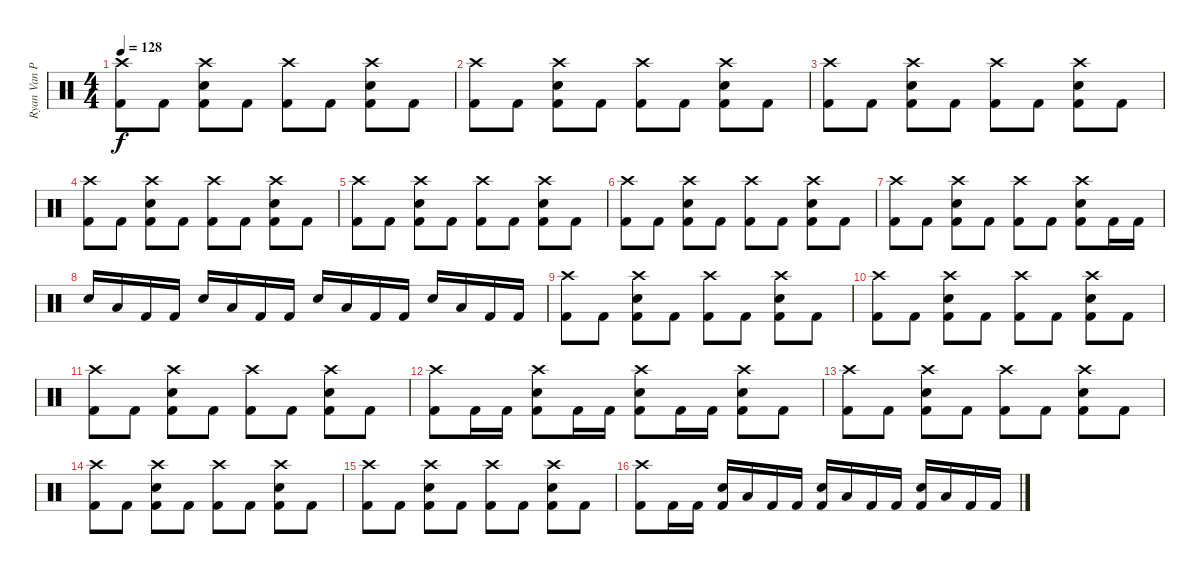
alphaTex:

\track ("Ryan Van Poederooyen" "Ryan Van P") {instrument percussion}
\staff {score}
\articulation defaults
\ts (4 4)
\tempo 128
\clef neutral
\ks c
("Crash high (hit)" "Kick (hit) 2").8{dy f volume 6} "Kick (hit) 2".8 ("Crash high (hit)" "Electric Snare (hit)" "Kick (hit) 2").8 "Kick (hit) 2".8 ("Crash high (hit)" "Kick (hit) 2").8 "Kick (hit) 2".8 ("Crash high (hit)" "Electric Snare (hit)" "Kick (hit) 2").8 "Kick (hit) 2".8 |
("Crash high (hit)" "Kick (hit) 2").8 "Kick (hit) 2".8 ("Crash high (hit)" "Electric Snare (hit)" "Kick (hit) 2").8 "Kick (hit) 2".8 ("Crash high (hit)" "Kick (hit) 2").8 "Kick (hit) 2".8 ("Crash high (hit)" "Electric Snare (hit)" "Kick (hit) 2").8 "Kick (hit) 2".8 |
("Crash high (hit)" "Kick (hit) 2").8 "Kick (hit) 2".8 ("Crash high (hit)" "Electric Snare (hit)" "Kick (hit) 2").8 "Kick (hit) 2".8 ("Crash high (hit)" "Kick (hit) 2").8 "Kick (hit) 2".8 ("Crash high (hit)" "Electric Snare (hit)" "Kick (hit) 2").8 "Kick (hit) 2".8 |
("Crash high (hit)" "Kick (hit) 2").8 "Kick (hit) 2".8 ("Crash high (hit)" "Electric Snare (hit)" "Kick (hit) 2").8 "Kick (hit) 2".8 ("Crash high (hit)" "Kick (hit) 2").8 "Kick (hit) 2".8 ("Crash high (hit)" "Electric Snare (hit)" "Kick (hit) 2").8 "Kick (hit) 2".8 |
("Crash high (hit)" "Kick (hit) 2").8{volume 4} "Kick (hit) 2".8 ("Crash high (hit)" "Electric Snare (hit)" "Kick (hit) 2").8 "Kick (hit) 2".8 ("Crash high (hit)" "Kick (hit) 2").8 "Kick (hit) 2".8 ("Crash high (hit)" "Electric Snare (hit)" "Kick (hit) 2").8 "Kick (hit) 2".8 |
("Crash high (hit)" "Kick (hit) 2").8 "Kick (hit) 2".8 ("Crash high (hit)" "Electric Snare (hit)" "Kick (hit) 2").8 "Kick (hit) 2".8 ("Crash high (hit)" "Kick (hit) 2").8 "Kick (hit) 2".8 ("Crash high (hit)" "Electric Snare (hit)" "Kick (hit) 2").8 "Kick (hit) 2".8 |
("Crash high (hit)" "Kick (hit) 2").8 "Kick (hit) 2".8 ("Crash high (hit)" "Electric Snare (hit)" "Kick (hit) 2").8 "Kick (hit) 2".8 ("Crash high (hit)" "Kick (hit) 2").8 "Kick (hit) 2".8 ("Crash high (hit)" "Electric Snare (hit)" "Kick (hit) 2").8 "Kick (hit) 2".16 "Kick (hit) 2".16 |
"Electric Snare (hit)".16 "Low Tom (hit)".16 "Kick (hit) 2".16 "Kick (hit) 2".16 "Electric Snare (hit)".16 "Low Tom (hit)".16 "Kick (hit) 2".16 "Kick (hit) 2".16 "Electric Snare (hit)".16 "Low Tom (hit)".16 "Kick (hit) 2".16 "Kick (hit) 2".16 "Electric Snare (hit)".16 "Low Tom (hit)".16 "Kick (hit) 2".16 "Kick (hit) 2".16 |
("Crash high (hit)" "Kick (hit) 2").8{volume 2} "Kick (hit) 2".8 ("Crash high (hit)" "Electric Snare (hit)" "Kick (hit) 2").8 "Kick (hit) 2".8 ("Crash high (hit)" "Kick (hit) 2").8 "Kick (hit) 2".8 ("Crash high (hit)" "Electric Snare (hit)" "Kick (hit) 2").8 "Kick (hit) 2".8 |
("Crash high (hit)" "Kick (hit) 2").8 "Kick (hit) 2".8 ("Crash high (hit)" "Electric Snare (hit)" "Kick (hit) 2").8 "Kick (hit) 2".8 ("Crash high (hit)" "Kick (hit) 2").8 "Kick (hit) 2".8 ("Crash high (hit)" "Electric Snare (hit)" "Kick (hit) 2").8 "Kick (hit) 2".8 |
("Crash high (hit)" "Kick (hit) 2").8 "Kick (hit) 2".8 ("Crash high (hit)" "Electric Snare (hit)" "Kick (hit) 2").8 "Kick (hit) 2".8 ("Crash high (hit)" "Kick (hit) 2").8 "Kick (hit) 2".8 ("Crash high (hit)" "Electric Snare (hit)" "Kick (hit) 2").8 "Kick (hit) 2".8 |
("Crash high (hit)" "Kick (hit) 2").8 "Kick (hit) 2".16 "Kick (hit) 2".16 ("Crash high (hit)" "Electric Snare (hit)" "Kick (hit) 2").8 "Kick (hit) 2".16 "Kick (hit) 2".16 ("Crash high (hit)" "Electric Snare (hit)" "Kick (hit) 2").8 "Kick (hit) 2".16 "Kick (hit) 2".16 ("Crash high (hit)" "Electric Snare (hit)" "Kick (hit) 2").8 "Kick (hit) 2".8 |
("Crash high (hit)" "Kick (hit) 2").8{volume 0} "Kick (hit) 2".8 ("Crash high (hit)" "Electric Snare (hit)" "Kick (hit) 2").8 "Kick (hit) 2".8 ("Crash high (hit)" "Kick (hit) 2").8 "Kick (hit) 2".8 ("Crash high (hit)" "Electric Snare (hit)" "Kick (hit) 2").8 "Kick (hit) 2".8 |
("Crash high (hit)" "Kick (hit) 2").8 "Kick (hit) 2".8 ("Crash high (hit)" "Electric Snare (hit)" "Kick (hit) 2").8 "Kick (hit) 2".8 ("Crash high (hit)" "Kick (hit) 2").8 "Kick (hit) 2".8 ("Crash high (hit)" "Electric Snare (hit)" "Kick (hit) 2").8 "Kick (hit) 2".8 |
("Crash high (hit)" "Kick (hit) 2").8 "Kick (hit) 2".8 ("Crash high (hit)" "Electric Snare (hit)" "Kick (hit) 2").8 "Kick (hit) 2".8 ("Crash high (hit)" "Kick (hit) 2").8 "Kick (hit) 2".8 ("Crash high (hit)" "Electric Snare (hit)" "Kick (hit) 2").8 "Kick (hit) 2".8 |
("Crash high (hit)" "Kick (hit) 2").8 "Kick (hit) 2".16 "Kick (hit) 2".16 ("Electric Snare (hit)" "Kick (hit) 2").16 "Low Tom (hit)".16 "Kick (hit) 2".16 "Kick (hit) 2".16 ("Electric Snare (hit)" "Kick (hit) 2").16 "Low Tom (hit)".16 "Kick (hit) 2".16 "Kick (hit) 2".16 ("Electric Snare (hit)" "Kick (hit) 2").16 "Low Tom (hit)".16 "Kick (hit) 2".16 "Kick (hit) 2".16
